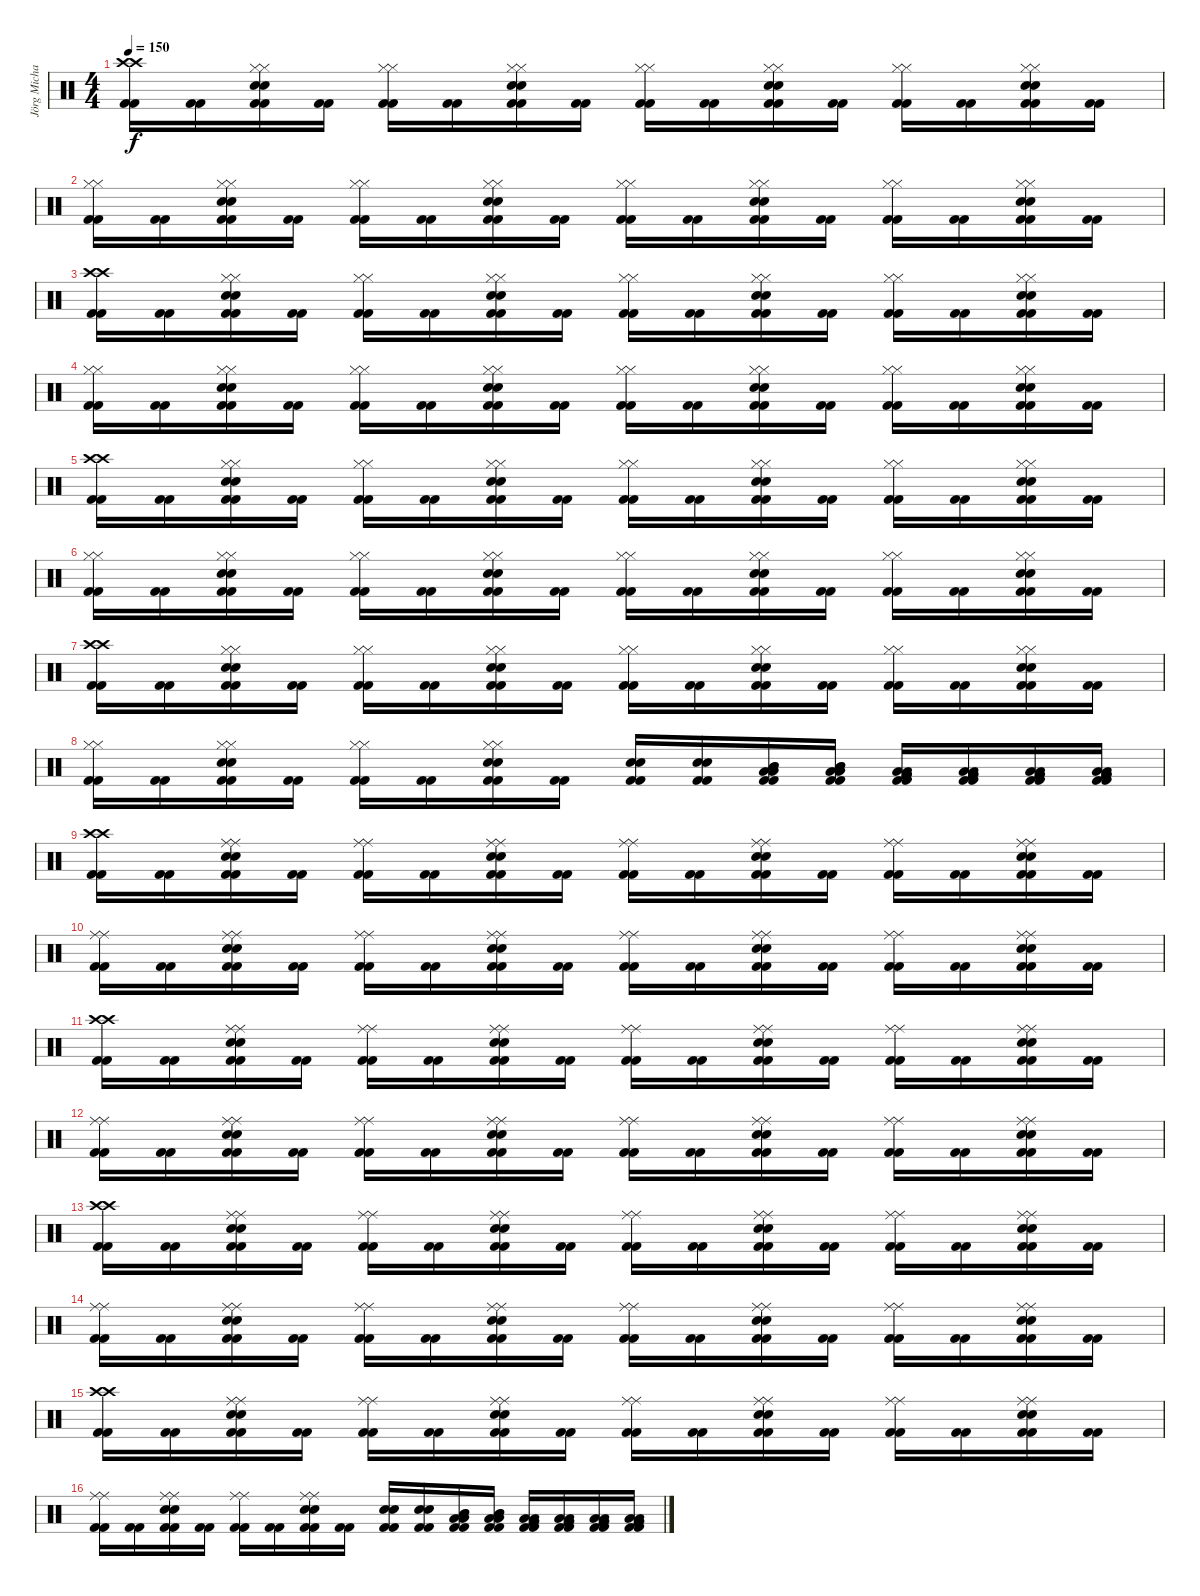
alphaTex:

\track ("Jörg Michael" "Jörg Micha") {instrument percussion}
\staff {score}
\articulation defaults
\ts (4 4)
\tempo 150
\clef neutral
\ks c
("Kick (hit) 2" "Crash high (hit)" "Kick (hit) 2" "Crash high (hit)").16{dy f} ("Kick (hit) 2" "Kick (hit) 2").16 ("Kick (hit) 2" "Snare (hit) 2" "Hi-Hat (closed)" "Kick (hit) 2" "Snare (hit) 2" "Hi-Hat (closed)").16 ("Kick (hit) 2" "Kick (hit) 2").16 ("Kick (hit) 2" "Hi-Hat (closed)" "Kick (hit) 2" "Hi-Hat (closed)").16 ("Kick (hit) 2" "Kick (hit) 2").16 ("Kick (hit) 2" "Snare (hit) 2" "Hi-Hat (closed)" "Kick (hit) 2" "Snare (hit) 2" "Hi-Hat (closed)").16 ("Kick (hit) 2" "Kick (hit) 2").16 ("Kick (hit) 2" "Hi-Hat (closed)" "Kick (hit) 2" "Hi-Hat (closed)").16 ("Kick (hit) 2" "Kick (hit) 2").16 ("Kick (hit) 2" "Snare (hit) 2" "Hi-Hat (closed)" "Kick (hit) 2" "Snare (hit) 2" "Hi-Hat (closed)").16 ("Kick (hit) 2" "Kick (hit) 2").16 ("Kick (hit) 2" "Hi-Hat (closed)" "Kick (hit) 2" "Hi-Hat (closed)").16 ("Kick (hit) 2" "Kick (hit) 2").16 ("Kick (hit) 2" "Snare (hit) 2" "Hi-Hat (closed)" "Kick (hit) 2" "Snare (hit) 2" "Hi-Hat (closed)").16 ("Kick (hit) 2" "Kick (hit) 2").16 |
("Kick (hit) 2" "Hi-Hat (closed)" "Kick (hit) 2" "Hi-Hat (closed)").16 ("Kick (hit) 2" "Kick (hit) 2").16 ("Kick (hit) 2" "Hi-Hat (closed)" "Snare (hit) 2" "Kick (hit) 2" "Hi-Hat (closed)" "Snare (hit) 2").16 ("Kick (hit) 2" "Kick (hit) 2").16 ("Kick (hit) 2" "Hi-Hat (closed)" "Kick (hit) 2" "Hi-Hat (closed)").16 ("Kick (hit) 2" "Kick (hit) 2").16 ("Kick (hit) 2" "Snare (hit) 2" "Hi-Hat (closed)" "Kick (hit) 2" "Snare (hit) 2" "Hi-Hat (closed)").16 ("Kick (hit) 2" "Kick (hit) 2").16 ("Kick (hit) 2" "Hi-Hat (closed)" "Kick (hit) 2" "Hi-Hat (closed)").16 ("Kick (hit) 2" "Kick (hit) 2").16 ("Kick (hit) 2" "Snare (hit) 2" "Hi-Hat (closed)" "Kick (hit) 2" "Snare (hit) 2" "Hi-Hat (closed)").16 ("Kick (hit) 2" "Kick (hit) 2").16 ("Kick (hit) 2" "Hi-Hat (closed)" "Kick (hit) 2" "Hi-Hat (closed)").16 ("Kick (hit) 2" "Kick (hit) 2").16 ("Kick (hit) 2" "Snare (hit) 2" "Hi-Hat (closed)" "Kick (hit) 2" "Snare (hit) 2" "Hi-Hat (closed)").16 ("Kick (hit) 2" "Kick (hit) 2").16 |
("Kick (hit) 2" "Crash high (hit)" "Kick (hit) 2" "Crash high (hit)").16 ("Kick (hit) 2" "Kick (hit) 2").16 ("Kick (hit) 2" "Snare (hit) 2" "Hi-Hat (closed)" "Kick (hit) 2" "Snare (hit) 2" "Hi-Hat (closed)").16 ("Kick (hit) 2" "Kick (hit) 2").16 ("Kick (hit) 2" "Hi-Hat (closed)" "Kick (hit) 2" "Hi-Hat (closed)").16 ("Kick (hit) 2" "Kick (hit) 2").16 ("Kick (hit) 2" "Hi-Hat (closed)" "Snare (hit) 2" "Kick (hit) 2" "Hi-Hat (closed)" "Snare (hit) 2").16 ("Kick (hit) 2" "Kick (hit) 2").16 ("Kick (hit) 2" "Hi-Hat (closed)" "Kick (hit) 2" "Hi-Hat (closed)").16 ("Kick (hit) 2" "Kick (hit) 2").16 ("Kick (hit) 2" "Hi-Hat (closed)" "Snare (hit) 2" "Kick (hit) 2" "Hi-Hat (closed)" "Snare (hit) 2").16 ("Kick (hit) 2" "Kick (hit) 2").16 ("Kick (hit) 2" "Hi-Hat (closed)" "Kick (hit) 2" "Hi-Hat (closed)").16 ("Kick (hit) 2" "Kick (hit) 2").16 ("Kick (hit) 2" "Hi-Hat (closed)" "Snare (hit) 2" "Kick (hit) 2" "Hi-Hat (closed)" "Snare (hit) 2").16 ("Kick (hit) 2" "Kick (hit) 2").16 |
("Kick (hit) 2" "Hi-Hat (closed)" "Kick (hit) 2" "Hi-Hat (closed)").16 ("Kick (hit) 2" "Kick (hit) 2").16 ("Kick (hit) 2" "Snare (hit) 2" "Hi-Hat (closed)" "Kick (hit) 2" "Snare (hit) 2" "Hi-Hat (closed)").16 ("Kick (hit) 2" "Kick (hit) 2").16 ("Kick (hit) 2" "Hi-Hat (closed)" "Kick (hit) 2" "Hi-Hat (closed)").16 ("Kick (hit) 2" "Kick (hit) 2").16 ("Kick (hit) 2" "Hi-Hat (closed)" "Snare (hit) 2" "Kick (hit) 2" "Hi-Hat (closed)" "Snare (hit) 2").16 ("Kick (hit) 2" "Kick (hit) 2").16 ("Kick (hit) 2" "Hi-Hat (closed)" "Kick (hit) 2" "Hi-Hat (closed)").16 ("Kick (hit) 2" "Kick (hit) 2").16 ("Kick (hit) 2" "Snare (hit) 2" "Hi-Hat (closed)" "Kick (hit) 2" "Snare (hit) 2" "Hi-Hat (closed)").16 ("Kick (hit) 2" "Kick (hit) 2").16 ("Kick (hit) 2" "Hi-Hat (closed)" "Kick (hit) 2" "Hi-Hat (closed)").16 ("Kick (hit) 2" "Kick (hit) 2").16 ("Kick (hit) 2" "Snare (hit) 2" "Hi-Hat (closed)" "Kick (hit) 2" "Snare (hit) 2" "Hi-Hat (closed)").16 ("Kick (hit) 2" "Kick (hit) 2").16 |
("Kick (hit) 2" "Crash high (hit)" "Kick (hit) 2" "Crash high (hit)").16 ("Kick (hit) 2" "Kick (hit) 2").16 ("Kick (hit) 2" "Hi-Hat (closed)" "Snare (hit) 2" "Kick (hit) 2" "Hi-Hat (closed)" "Snare (hit) 2").16 ("Kick (hit) 2" "Kick (hit) 2").16 ("Kick (hit) 2" "Hi-Hat (closed)" "Kick (hit) 2" "Hi-Hat (closed)").16 ("Kick (hit) 2" "Kick (hit) 2").16 ("Kick (hit) 2" "Hi-Hat (closed)" "Snare (hit) 2" "Kick (hit) 2" "Hi-Hat (closed)" "Snare (hit) 2").16 ("Kick (hit) 2" "Kick (hit) 2").16 ("Kick (hit) 2" "Hi-Hat (closed)" "Kick (hit) 2" "Hi-Hat (closed)").16 ("Kick (hit) 2" "Kick (hit) 2").16 ("Kick (hit) 2" "Snare (hit) 2" "Hi-Hat (closed)" "Kick (hit) 2" "Snare (hit) 2" "Hi-Hat (closed)").16 ("Kick (hit) 2" "Kick (hit) 2").16 ("Kick (hit) 2" "Hi-Hat (closed)" "Kick (hit) 2" "Hi-Hat (closed)").16 ("Kick (hit) 2" "Kick (hit) 2").16 ("Kick (hit) 2" "Snare (hit) 2" "Hi-Hat (closed)" "Kick (hit) 2" "Snare (hit) 2" "Hi-Hat (closed)").16 ("Kick (hit) 2" "Kick (hit) 2").16 |
("Kick (hit) 2" "Hi-Hat (closed)" "Kick (hit) 2" "Hi-Hat (closed)").16 ("Kick (hit) 2" "Kick (hit) 2").16 ("Kick (hit) 2" "Hi-Hat (closed)" "Snare (hit) 2" "Kick (hit) 2" "Hi-Hat (closed)" "Snare (hit) 2").16 ("Kick (hit) 2" "Kick (hit) 2").16 ("Kick (hit) 2" "Hi-Hat (closed)" "Kick (hit) 2" "Hi-Hat (closed)").16 ("Kick (hit) 2" "Kick (hit) 2").16 ("Kick (hit) 2" "Hi-Hat (closed)" "Snare (hit) 2" "Kick (hit) 2" "Hi-Hat (closed)" "Snare (hit) 2").16 ("Kick (hit) 2" "Kick (hit) 2").16 ("Kick (hit) 2" "Hi-Hat (closed)" "Kick (hit) 2" "Hi-Hat (closed)").16 ("Kick (hit) 2" "Kick (hit) 2").16 ("Kick (hit) 2" "Snare (hit) 2" "Hi-Hat (closed)" "Kick (hit) 2" "Snare (hit) 2" "Hi-Hat (closed)").16 ("Kick (hit) 2" "Kick (hit) 2").16 ("Kick (hit) 2" "Hi-Hat (closed)" "Kick (hit) 2" "Hi-Hat (closed)").16 ("Kick (hit) 2" "Kick (hit) 2").16 ("Kick (hit) 2" "Snare (hit) 2" "Hi-Hat (closed)" "Kick (hit) 2" "Snare (hit) 2" "Hi-Hat (closed)").16 ("Kick (hit) 2" "Kick (hit) 2").16 |
("Kick (hit) 2" "Crash high (hit)" "Kick (hit) 2" "Crash high (hit)").16 ("Kick (hit) 2" "Kick (hit) 2").16 ("Kick (hit) 2" "Snare (hit) 2" "Hi-Hat (closed)" "Kick (hit) 2" "Snare (hit) 2" "Hi-Hat (closed)").16 ("Kick (hit) 2" "Kick (hit) 2").16 ("Kick (hit) 2" "Hi-Hat (closed)" "Kick (hit) 2" "Hi-Hat (closed)").16 ("Kick (hit) 2" "Kick (hit) 2").16 ("Kick (hit) 2" "Hi-Hat (closed)" "Snare (hit) 2" "Kick (hit) 2" "Hi-Hat (closed)" "Snare (hit) 2").16 ("Kick (hit) 2" "Kick (hit) 2").16 ("Kick (hit) 2" "Hi-Hat (closed)" "Kick (hit) 2" "Hi-Hat (closed)").16 ("Kick (hit) 2" "Kick (hit) 2").16 ("Kick (hit) 2" "Hi-Hat (closed)" "Snare (hit) 2" "Kick (hit) 2" "Hi-Hat (closed)" "Snare (hit) 2").16 ("Kick (hit) 2" "Kick (hit) 2").16 ("Kick (hit) 2" "Hi-Hat (closed)" "Kick (hit) 2" "Hi-Hat (closed)").16 ("Kick (hit) 2" "Kick (hit) 2").16 ("Kick (hit) 2" "Snare (hit) 2" "Hi-Hat (closed)" "Kick (hit) 2" "Snare (hit) 2" "Hi-Hat (closed)").16 ("Kick (hit) 2" "Kick (hit) 2").16 |
("Kick (hit) 2" "Hi-Hat (closed)" "Kick (hit) 2" "Hi-Hat (closed)").16 ("Kick (hit) 2" "Kick (hit) 2").16 ("Kick (hit) 2" "Snare (hit) 2" "Hi-Hat (closed)" "Kick (hit) 2" "Snare (hit) 2" "Hi-Hat (closed)").16 ("Kick (hit) 2" "Kick (hit) 2").16 ("Kick (hit) 2" "Hi-Hat (closed)" "Kick (hit) 2" "Hi-Hat (closed)").16 ("Kick (hit) 2" "Kick (hit) 2").16 ("Kick (hit) 2" "Snare (hit) 2" "Hi-Hat (closed)" "Kick (hit) 2" "Snare (hit) 2" "Hi-Hat (closed)").16 ("Kick (hit) 2" "Kick (hit) 2").16 ("Kick (hit) 2" "Snare (hit) 2" "Kick (hit) 2" "Snare (hit) 2").16 ("Kick (hit) 2" "Snare (hit) 2" "Kick (hit) 2" "Snare (hit) 2").16 ("Kick (hit) 2" "Mid Tom (hit)" "Low Tom (hit)" "Kick (hit) 2" "Mid Tom (hit)" "Low Tom (hit)").16 ("Kick (hit) 2" "Low Tom (hit)" "Mid Tom (hit)" "Kick (hit) 2" "Low Tom (hit)" "Mid Tom (hit)").16 ("Kick (hit) 2" "Very Low Tom (hit)" "Low Tom (hit)" "Kick (hit) 2" "Very Low Tom (hit)" "Low Tom (hit)").16 ("Kick (hit) 2" "Very Low Tom (hit)" "Low Tom (hit)" "Kick (hit) 2" "Very Low Tom (hit)" "Low Tom (hit)").16 ("Kick (hit) 2" "Low Floor Tom (hit)" "Very Low Tom (hit)" "Kick (hit) 2" "Low Floor Tom (hit)" "Very Low Tom (hit)").16 ("Kick (hit) 2" "Very Low Tom (hit)" "Low Floor Tom (hit)" "Kick (hit) 2" "Very Low Tom (hit)" "Low Floor Tom (hit)").16 |
("Kick (hit) 2" "Crash high (hit)" "Kick (hit) 2" "Crash high (hit)").16{volume 16} ("Kick (hit) 2" "Kick (hit) 2").16{volume 16} ("Kick (hit) 2" "Snare (hit) 2" "Ride (middle)" "Kick (hit) 2" "Snare (hit) 2" "Ride (middle)").16{volume 16} ("Kick (hit) 2" "Kick (hit) 2").16{volume 16} ("Kick (hit) 2" "Ride (middle)" "Kick (hit) 2" "Ride (middle)").16{volume 15} ("Kick (hit) 2" "Kick (hit) 2").16 ("Kick (hit) 2" "Snare (hit) 2" "Ride (middle)" "Kick (hit) 2" "Snare (hit) 2" "Ride (middle)").16{volume 15} ("Kick (hit) 2" "Kick (hit) 2").16{volume 15} ("Kick (hit) 2" "Ride (middle)" "Kick (hit) 2" "Ride (middle)").16{volume 15} ("Kick (hit) 2" "Kick (hit) 2").16{volume 15} ("Kick (hit) 2" "Snare (hit) 2" "Ride (middle)" "Kick (hit) 2" "Snare (hit) 2" "Ride (middle)").16{volume 15} ("Kick (hit) 2" "Kick (hit) 2").16{volume 15} ("Kick (hit) 2" "Ride (middle)" "Kick (hit) 2" "Ride (middle)").16{volume 14} ("Kick (hit) 2" "Kick (hit) 2").16{volume 14} ("Kick (hit) 2" "Snare (hit) 2" "Ride (middle)" "Kick (hit) 2" "Snare (hit) 2" "Ride (middle)").16{volume 14} ("Kick (hit) 2" "Kick (hit) 2").16{volume 14} |
("Kick (hit) 2" "Ride (middle)" "Kick (hit) 2" "Ride (middle)").16{volume 14} ("Kick (hit) 2" "Kick (hit) 2").16{volume 14} ("Kick (hit) 2" "Ride (middle)" "Snare (hit) 2" "Kick (hit) 2" "Ride (middle)" "Snare (hit) 2").16{volume 14} ("Kick (hit) 2" "Kick (hit) 2").16{volume 14} ("Kick (hit) 2" "Ride (middle)" "Kick (hit) 2" "Ride (middle)").16{volume 14} ("Kick (hit) 2" "Kick (hit) 2").16{volume 13} ("Kick (hit) 2" "Snare (hit) 2" "Ride (middle)" "Kick (hit) 2" "Snare (hit) 2" "Ride (middle)").16{volume 13} ("Kick (hit) 2" "Kick (hit) 2").16{volume 13} ("Kick (hit) 2" "Ride (middle)" "Kick (hit) 2" "Ride (middle)").16{volume 13} ("Kick (hit) 2" "Kick (hit) 2").16{volume 13} ("Kick (hit) 2" "Snare (hit) 2" "Ride (middle)" "Kick (hit) 2" "Snare (hit) 2" "Ride (middle)").16{volume 13} ("Kick (hit) 2" "Kick (hit) 2").16{volume 13} ("Kick (hit) 2" "Ride (middle)" "Kick (hit) 2" "Ride (middle)").16{volume 12} ("Kick (hit) 2" "Kick (hit) 2").16{volume 12} ("Kick (hit) 2" "Snare (hit) 2" "Ride (middle)" "Kick (hit) 2" "Snare (hit) 2" "Ride (middle)").16{volume 12} ("Kick (hit) 2" "Kick (hit) 2").16{volume 12} |
("Kick (hit) 2" "Crash high (hit)" "Kick (hit) 2" "Crash high (hit)").16{volume 12} ("Kick (hit) 2" "Kick (hit) 2").16{volume 12} ("Kick (hit) 2" "Snare (hit) 2" "Ride (middle)" "Kick (hit) 2" "Snare (hit) 2" "Ride (middle)").16{volume 12} ("Kick (hit) 2" "Kick (hit) 2").16{volume 12} ("Kick (hit) 2" "Ride (middle)" "Kick (hit) 2" "Ride (middle)").16{volume 12} ("Kick (hit) 2" "Kick (hit) 2").16{volume 11} ("Kick (hit) 2" "Ride (middle)" "Snare (hit) 2" "Kick (hit) 2" "Ride (middle)" "Snare (hit) 2").16{volume 11} ("Kick (hit) 2" "Kick (hit) 2").16{volume 11} ("Kick (hit) 2" "Ride (middle)" "Kick (hit) 2" "Ride (middle)").16{volume 11} ("Kick (hit) 2" "Kick (hit) 2").16{volume 11} ("Kick (hit) 2" "Ride (middle)" "Snare (hit) 2" "Kick (hit) 2" "Ride (middle)" "Snare (hit) 2").16{volume 11} ("Kick (hit) 2" "Kick (hit) 2").16{volume 11} ("Kick (hit) 2" "Ride (middle)" "Kick (hit) 2" "Ride (middle)").16{volume 10} ("Kick (hit) 2" "Kick (hit) 2").16{volume 10} ("Kick (hit) 2" "Ride (middle)" "Snare (hit) 2" "Kick (hit) 2" "Ride (middle)" "Snare (hit) 2").16{volume 10} ("Kick (hit) 2" "Kick (hit) 2").16{volume 10} |
("Kick (hit) 2" "Ride (middle)" "Kick (hit) 2" "Ride (middle)").16{volume 10} ("Kick (hit) 2" "Kick (hit) 2").16{volume 10} ("Kick (hit) 2" "Snare (hit) 2" "Ride (middle)" "Kick (hit) 2" "Snare (hit) 2" "Ride (middle)").16{volume 10} ("Kick (hit) 2" "Kick (hit) 2").16{volume 10} ("Kick (hit) 2" "Ride (middle)" "Kick (hit) 2" "Ride (middle)").16{volume 10} ("Kick (hit) 2" "Kick (hit) 2").16{volume 9} ("Kick (hit) 2" "Ride (middle)" "Snare (hit) 2" "Kick (hit) 2" "Ride (middle)" "Snare (hit) 2").16{volume 9} ("Kick (hit) 2" "Kick (hit) 2").16{volume 9} ("Kick (hit) 2" "Ride (middle)" "Kick (hit) 2" "Ride (middle)").16{volume 9} ("Kick (hit) 2" "Kick (hit) 2").16{volume 9} ("Kick (hit) 2" "Snare (hit) 2" "Ride (middle)" "Kick (hit) 2" "Snare (hit) 2" "Ride (middle)").16{volume 9} ("Kick (hit) 2" "Kick (hit) 2").16{volume 9} ("Kick (hit) 2" "Ride (middle)" "Kick (hit) 2" "Ride (middle)").16{volume 8} ("Kick (hit) 2" "Kick (hit) 2").16{volume 8} ("Kick (hit) 2" "Snare (hit) 2" "Ride (middle)" "Kick (hit) 2" "Snare (hit) 2" "Ride (middle)").16{volume 8} ("Kick (hit) 2" "Kick (hit) 2").16{volume 8} |
("Kick (hit) 2" "Crash high (hit)" "Kick (hit) 2" "Crash high (hit)").16{volume 8} ("Kick (hit) 2" "Kick (hit) 2").16{volume 8} ("Kick (hit) 2" "Ride (middle)" "Snare (hit) 2" "Kick (hit) 2" "Ride (middle)" "Snare (hit) 2").16{volume 8} ("Kick (hit) 2" "Kick (hit) 2").16{volume 8} ("Kick (hit) 2" "Ride (middle)" "Kick (hit) 2" "Ride (middle)").16{volume 8} ("Kick (hit) 2" "Kick (hit) 2").16{volume 7} ("Kick (hit) 2" "Ride (middle)" "Snare (hit) 2" "Kick (hit) 2" "Ride (middle)" "Snare (hit) 2").16{volume 7} ("Kick (hit) 2" "Kick (hit) 2").16{volume 7} ("Kick (hit) 2" "Ride (middle)" "Kick (hit) 2" "Ride (middle)").16{volume 7} ("Kick (hit) 2" "Kick (hit) 2").16{volume 7} ("Kick (hit) 2" "Snare (hit) 2" "Ride (middle)" "Kick (hit) 2" "Snare (hit) 2" "Ride (middle)").16{volume 7} ("Kick (hit) 2" "Kick (hit) 2").16{volume 7} ("Kick (hit) 2" "Ride (middle)" "Kick (hit) 2" "Ride (middle)").16{volume 6} ("Kick (hit) 2" "Kick (hit) 2").16{volume 6} ("Kick (hit) 2" "Snare (hit) 2" "Ride (middle)" "Kick (hit) 2" "Snare (hit) 2" "Ride (middle)").16{volume 6} ("Kick (hit) 2" "Kick (hit) 2").16{volume 6} |
("Kick (hit) 2" "Ride (middle)" "Kick (hit) 2" "Ride (middle)").16{volume 6} ("Kick (hit) 2" "Kick (hit) 2").16{volume 6} ("Kick (hit) 2" "Ride (middle)" "Snare (hit) 2" "Kick (hit) 2" "Ride (middle)" "Snare (hit) 2").16{volume 6} ("Kick (hit) 2" "Kick (hit) 2").16{volume 6} ("Kick (hit) 2" "Ride (middle)" "Kick (hit) 2" "Ride (middle)").16{volume 6} ("Kick (hit) 2" "Kick (hit) 2").16{volume 5} ("Kick (hit) 2" "Ride (middle)" "Snare (hit) 2" "Kick (hit) 2" "Ride (middle)" "Snare (hit) 2").16{volume 5} ("Kick (hit) 2" "Kick (hit) 2").16{volume 5} ("Kick (hit) 2" "Ride (middle)" "Kick (hit) 2" "Ride (middle)").16{volume 5} ("Kick (hit) 2" "Kick (hit) 2").16{volume 5} ("Kick (hit) 2" "Snare (hit) 2" "Ride (middle)" "Kick (hit) 2" "Snare (hit) 2" "Ride (middle)").16{volume 5} ("Kick (hit) 2" "Kick (hit) 2").16{volume 5} ("Kick (hit) 2" "Ride (middle)" "Kick (hit) 2" "Ride (middle)").16{volume 4} ("Kick (hit) 2" "Kick (hit) 2").16{volume 4} ("Kick (hit) 2" "Snare (hit) 2" "Ride (middle)" "Kick (hit) 2" "Snare (hit) 2" "Ride (middle)").16{volume 4} ("Kick (hit) 2" "Kick (hit) 2").16{volume 4} |
("Kick (hit) 2" "Crash high (hit)" "Kick (hit) 2" "Crash high (hit)").16{volume 4} ("Kick (hit) 2" "Kick (hit) 2").16{volume 4} ("Kick (hit) 2" "Snare (hit) 2" "Ride (middle)" "Kick (hit) 2" "Snare (hit) 2" "Ride (middle)").16{volume 4} ("Kick (hit) 2" "Kick (hit) 2").16{volume 4} ("Kick (hit) 2" "Ride (middle)" "Kick (hit) 2" "Ride (middle)").16{volume 4} ("Kick (hit) 2" "Kick (hit) 2").16{volume 3} ("Kick (hit) 2" "Ride (middle)" "Snare (hit) 2" "Kick (hit) 2" "Ride (middle)" "Snare (hit) 2").16{volume 3} ("Kick (hit) 2" "Kick (hit) 2").16{volume 3} ("Kick (hit) 2" "Ride (middle)" "Kick (hit) 2" "Ride (middle)").16{volume 3} ("Kick (hit) 2" "Kick (hit) 2").16{volume 3} ("Kick (hit) 2" "Ride (middle)" "Snare (hit) 2" "Kick (hit) 2" "Ride (middle)" "Snare (hit) 2").16{volume 3} ("Kick (hit) 2" "Kick (hit) 2").16{volume 3} ("Kick (hit) 2" "Ride (middle)" "Kick (hit) 2" "Ride (middle)").16{volume 2} ("Kick (hit) 2" "Kick (hit) 2").16{volume 2} ("Kick (hit) 2" "Snare (hit) 2" "Ride (middle)" "Kick (hit) 2" "Snare (hit) 2" "Ride (middle)").16{volume 2} ("Kick (hit) 2" "Kick (hit) 2").16{volume 2} |
("Kick (hit) 2" "Ride (middle)" "Kick (hit) 2" "Ride (middle)").16{volume 2} ("Kick (hit) 2" "Kick (hit) 2").16{volume 2} ("Kick (hit) 2" "Snare (hit) 2" "Ride (middle)" "Kick (hit) 2" "Snare (hit) 2" "Ride (middle)").16{volume 2} ("Kick (hit) 2" "Kick (hit) 2").16{volume 2} ("Kick (hit) 2" "Ride (middle)" "Kick (hit) 2" "Ride (middle)").16{volume 2} ("Kick (hit) 2" "Kick (hit) 2").16{volume 1} ("Kick (hit) 2" "Snare (hit) 2" "Ride (middle)" "Kick (hit) 2" "Snare (hit) 2" "Ride (middle)").16{volume 1} ("Kick (hit) 2" "Kick (hit) 2").16{volume 1} ("Kick (hit) 2" "Snare (hit) 2" "Kick (hit) 2" "Snare (hit) 2").16{volume 1} ("Kick (hit) 2" "Snare (hit) 2" "Kick (hit) 2" "Snare (hit) 2").16{volume 1} ("Kick (hit) 2" "Mid Tom (hit)" "Low Tom (hit)" "Kick (hit) 2" "Mid Tom (hit)" "Low Tom (hit)").16{volume 1} ("Kick (hit) 2" "Low Tom (hit)" "Mid Tom (hit)" "Kick (hit) 2" "Low Tom (hit)" "Mid Tom (hit)").16{volume 1} ("Kick (hit) 2" "Very Low Tom (hit)" "Low Tom (hit)" "Kick (hit) 2" "Very Low Tom (hit)" "Low Tom (hit)").16{volume 0} ("Kick (hit) 2" "Very Low Tom (hit)" "Low Tom (hit)" "Kick (hit) 2" "Very Low Tom (hit)" "Low Tom (hit)").16{volume 0} ("Kick (hit) 2" "Low Floor Tom (hit)" "Very Low Tom (hit)" "Kick (hit) 2" "Low Floor Tom (hit)" "Very Low Tom (hit)").16{volume 0} ("Kick (hit) 2" "Very Low Tom (hit)" "Low Floor Tom (hit)" "Kick (hit) 2" "Very Low Tom (hit)" "Low Floor Tom (hit)").16{volume 0}
